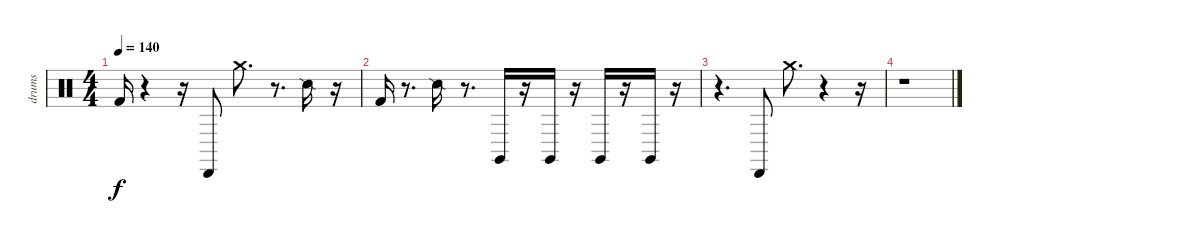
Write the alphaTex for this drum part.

\track ("drums" "drums") {instrument percussion}
\staff {score}
\articulation defaults
\ts (4 4)
\tempo 140
\clef neutral
\ks c "Kick (hit) 2".16{dy f}
r.4 r.16 "Cabasa (hit)".8{volume 7} "Crash medium (hit)".8{d volume 7} r.8{d} "Snare (side stick) 2".16{volume 6} r.16 |
"Kick (hit) 2".16{volume 6} r.8{d} "Snare (side stick) 2".16{volume 5} r.8{d} "Claves (hit)".16{volume 5} r.16 "Claves (hit)".16{volume 4} r.16 "Claves (hit)".16{volume 4} r.16 "Claves (hit)".16{volume 4} r.16 |
r.4{d} "Cabasa (hit)".8{volume 3} "Crash medium (hit)".8{d volume 3} r.4 r.16 |
r.1
